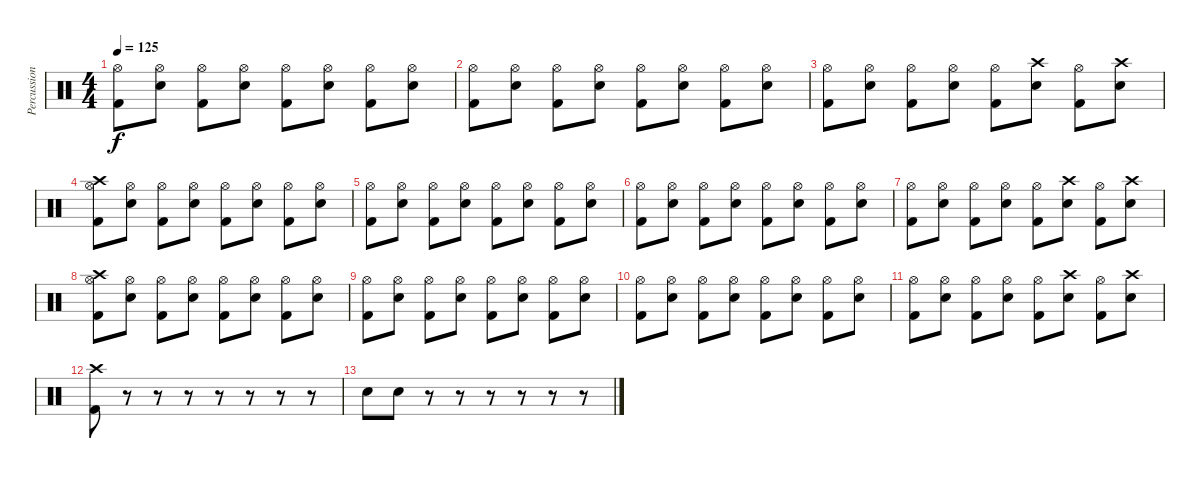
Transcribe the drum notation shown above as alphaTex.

\track ("Percussion" "Percussion") {instrument percussion}
\staff {score}
\articulation defaults
\ts (4 4)
\tempo 125
\clef neutral
\ks c
("Hi-Hat (open)" "Kick (hit) 2").8{dy f} ("Hi-Hat (open)" "Electric Snare (hit)").8 ("Hi-Hat (open)" "Kick (hit) 2").8 ("Hi-Hat (open)" "Electric Snare (hit)").8 ("Hi-Hat (open)" "Kick (hit) 2").8 ("Hi-Hat (open)" "Electric Snare (hit)").8 ("Hi-Hat (open)" "Kick (hit) 2").8 ("Hi-Hat (open)" "Electric Snare (hit)").8 |
("Hi-Hat (open)" "Kick (hit) 2").8 ("Hi-Hat (open)" "Electric Snare (hit)").8 ("Hi-Hat (open)" "Kick (hit) 2").8 ("Hi-Hat (open)" "Electric Snare (hit)").8 ("Hi-Hat (open)" "Kick (hit) 2").8 ("Hi-Hat (open)" "Electric Snare (hit)").8 ("Hi-Hat (open)" "Kick (hit) 2").8 ("Hi-Hat (open)" "Electric Snare (hit)").8 |
("Hi-Hat (open)" "Kick (hit) 2").8 ("Hi-Hat (open)" "Electric Snare (hit)").8 ("Hi-Hat (open)" "Kick (hit) 2").8 ("Hi-Hat (open)" "Electric Snare (hit)").8 ("Hi-Hat (open)" "Kick (hit) 2").8 ("Crash high (hit)" "Electric Snare (hit)").8 ("Hi-Hat (open)" "Kick (hit) 2").8 ("Crash high (hit)" "Electric Snare (hit)").8 |
("Hi-Hat (open)" "Crash high (hit)" "Kick (hit) 2").8 ("Hi-Hat (open)" "Electric Snare (hit)").8 ("Hi-Hat (open)" "Kick (hit) 2").8 ("Hi-Hat (open)" "Electric Snare (hit)").8 ("Hi-Hat (open)" "Kick (hit) 2").8 ("Hi-Hat (open)" "Electric Snare (hit)").8 ("Hi-Hat (open)" "Kick (hit) 2").8 ("Hi-Hat (open)" "Electric Snare (hit)").8 |
("Hi-Hat (open)" "Kick (hit) 2").8 ("Hi-Hat (open)" "Electric Snare (hit)").8 ("Hi-Hat (open)" "Kick (hit) 2").8 ("Hi-Hat (open)" "Electric Snare (hit)").8 ("Hi-Hat (open)" "Kick (hit) 2").8 ("Hi-Hat (open)" "Electric Snare (hit)").8 ("Hi-Hat (open)" "Kick (hit) 2").8 ("Hi-Hat (open)" "Electric Snare (hit)").8 |
("Hi-Hat (open)" "Kick (hit) 2").8 ("Hi-Hat (open)" "Electric Snare (hit)").8 ("Hi-Hat (open)" "Kick (hit) 2").8 ("Hi-Hat (open)" "Electric Snare (hit)").8 ("Hi-Hat (open)" "Kick (hit) 2").8 ("Hi-Hat (open)" "Electric Snare (hit)").8 ("Hi-Hat (open)" "Kick (hit) 2").8 ("Hi-Hat (open)" "Electric Snare (hit)").8 |
("Hi-Hat (open)" "Kick (hit) 2").8 ("Hi-Hat (open)" "Electric Snare (hit)").8 ("Hi-Hat (open)" "Kick (hit) 2").8 ("Hi-Hat (open)" "Electric Snare (hit)").8 ("Hi-Hat (open)" "Kick (hit) 2").8 ("Crash high (hit)" "Electric Snare (hit)").8 ("Hi-Hat (open)" "Kick (hit) 2").8 ("Crash high (hit)" "Electric Snare (hit)").8 |
("Hi-Hat (open)" "Crash high (hit)" "Kick (hit) 2").8 ("Hi-Hat (open)" "Electric Snare (hit)").8 ("Hi-Hat (open)" "Kick (hit) 2").8 ("Hi-Hat (open)" "Electric Snare (hit)").8 ("Hi-Hat (open)" "Kick (hit) 2").8 ("Hi-Hat (open)" "Electric Snare (hit)").8 ("Hi-Hat (open)" "Kick (hit) 2").8 ("Hi-Hat (open)" "Electric Snare (hit)").8 |
("Hi-Hat (open)" "Kick (hit) 2").8 ("Hi-Hat (open)" "Electric Snare (hit)").8 ("Hi-Hat (open)" "Kick (hit) 2").8 ("Hi-Hat (open)" "Electric Snare (hit)").8 ("Hi-Hat (open)" "Kick (hit) 2").8 ("Hi-Hat (open)" "Electric Snare (hit)").8 ("Hi-Hat (open)" "Kick (hit) 2").8 ("Hi-Hat (open)" "Electric Snare (hit)").8 |
("Hi-Hat (open)" "Kick (hit) 2").8 ("Hi-Hat (open)" "Electric Snare (hit)").8 ("Hi-Hat (open)" "Kick (hit) 2").8 ("Hi-Hat (open)" "Electric Snare (hit)").8 ("Hi-Hat (open)" "Kick (hit) 2").8 ("Hi-Hat (open)" "Electric Snare (hit)").8 ("Hi-Hat (open)" "Kick (hit) 2").8 ("Hi-Hat (open)" "Electric Snare (hit)").8 |
("Hi-Hat (open)" "Kick (hit) 2").8 ("Hi-Hat (open)" "Electric Snare (hit)").8 ("Hi-Hat (open)" "Kick (hit) 2").8 ("Hi-Hat (open)" "Electric Snare (hit)").8 ("Hi-Hat (open)" "Kick (hit) 2").8 ("Crash high (hit)" "Electric Snare (hit)").8 ("Hi-Hat (open)" "Kick (hit) 2").8 ("Crash high (hit)" "Electric Snare (hit)").8 |
("Crash high (hit)" "Kick (hit) 2").8 r.8 r.8 r.8 r.8 r.8 r.8 r.8 |
"Electric Snare (hit)".8 "Electric Snare (hit)".8 r.8 r.8 r.8 r.8 r.8 r.8
